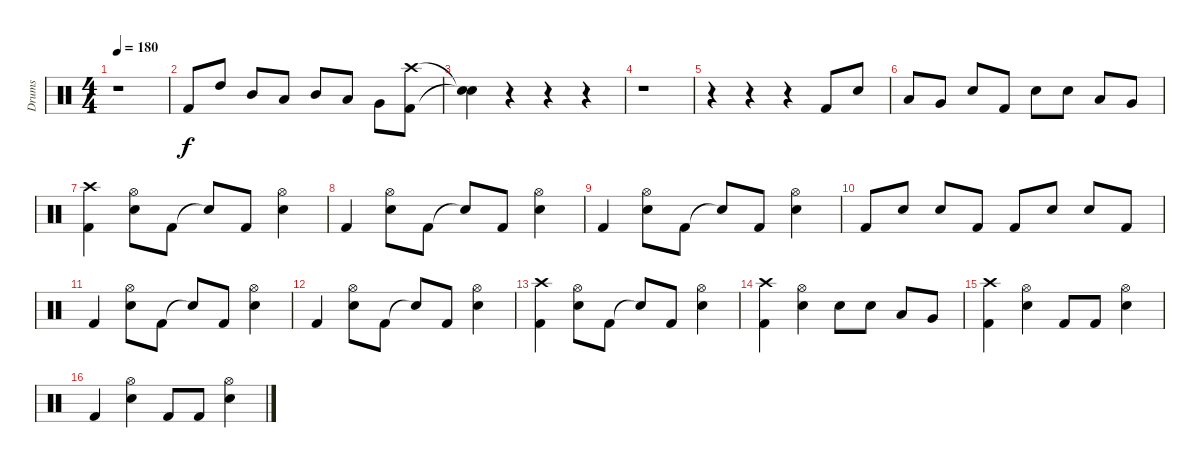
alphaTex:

\track ("Drums" "Drums") {instrument percussion}
\staff {score}
\articulation defaults
\ts (4 4)
\tempo 180
\clef neutral
\ks c
r.1{dy f} |
"Kick (hit) 2".8 "High Tom (hit)".8 "Mid Tom (hit)".8 "Low Tom (hit)".8 "Mid Tom (hit)".8 "Low Tom (hit)".8 "Very Low Tom (hit)".8 ("Crash high (hit)" "Kick (hit) 2").8 |
("Snare (hit)"{t} "Snare (hit)"{t}).4 r.4 r.4 r.4 |
r.1 |
r.4 r.4 r.4 "Kick (hit) 2".8 "Electric Snare (hit)".8 |
"Low Tom (hit)".8 "Very Low Tom (hit)".8 "Electric Snare (hit)".8 "Kick (hit) 2".8 "Electric Snare (hit)".8 "Electric Snare (hit)".8 "Low Tom (hit)".8 "Very Low Tom (hit)".8 |
("Crash high (hit)" "Kick (hit) 2").4 ("Hi-Hat (open)" "Electric Snare (hit)").8 "Kick (hit) 2".8 "Snare (hit)"{t}.8 "Kick (hit) 2".8 ("Hi-Hat (open)" "Electric Snare (hit)").4 |
"Kick (hit) 2".4 ("Hi-Hat (open)" "Electric Snare (hit)").8 "Kick (hit) 2".8 "Snare (hit)"{t}.8 "Kick (hit) 2".8 ("Hi-Hat (open)" "Electric Snare (hit)").4 |
"Kick (hit) 2".4 ("Hi-Hat (open)" "Electric Snare (hit)").8 "Kick (hit) 2".8 "Snare (hit)"{t}.8 "Kick (hit) 2".8 ("Hi-Hat (open)" "Electric Snare (hit)").4 |
"Kick (hit) 2".8 "Electric Snare (hit)".8 "Electric Snare (hit)".8 "Kick (hit) 2".8 "Kick (hit) 2".8 "Electric Snare (hit)".8 "Electric Snare (hit)".8 "Kick (hit) 2".8 |
"Kick (hit) 2".4 ("Hi-Hat (open)" "Electric Snare (hit)").8 "Kick (hit) 2".8 "Snare (hit)"{t}.8 "Kick (hit) 2".8 ("Hi-Hat (open)" "Electric Snare (hit)").4 |
"Kick (hit) 2".4 ("Hi-Hat (open)" "Electric Snare (hit)").8 "Kick (hit) 2".8 "Snare (hit)"{t}.8 "Kick (hit) 2".8 ("Hi-Hat (open)" "Electric Snare (hit)").4 |
("Crash high (hit)" "Kick (hit) 2").4 ("Hi-Hat (open)" "Electric Snare (hit)").8 "Kick (hit) 2".8 "Snare (hit)"{t}.8 "Kick (hit) 2".8 ("Hi-Hat (open)" "Electric Snare (hit)").4 |
("Crash high (hit)" "Kick (hit) 2").4 ("Hi-Hat (open)" "Electric Snare (hit)").4 "Electric Snare (hit)".8 "Electric Snare (hit)".8 "Low Tom (hit)".8 "Very Low Tom (hit)".8 |
("Crash high (hit)" "Kick (hit) 2").4 ("Hi-Hat (open)" "Electric Snare (hit)").4 "Kick (hit) 2".8 "Kick (hit) 2".8 ("Hi-Hat (open)" "Electric Snare (hit)").4 |
"Kick (hit) 2".4 ("Hi-Hat (open)" "Electric Snare (hit)").4 "Kick (hit) 2".8 "Kick (hit) 2".8 ("Hi-Hat (open)" "Electric Snare (hit)").4
